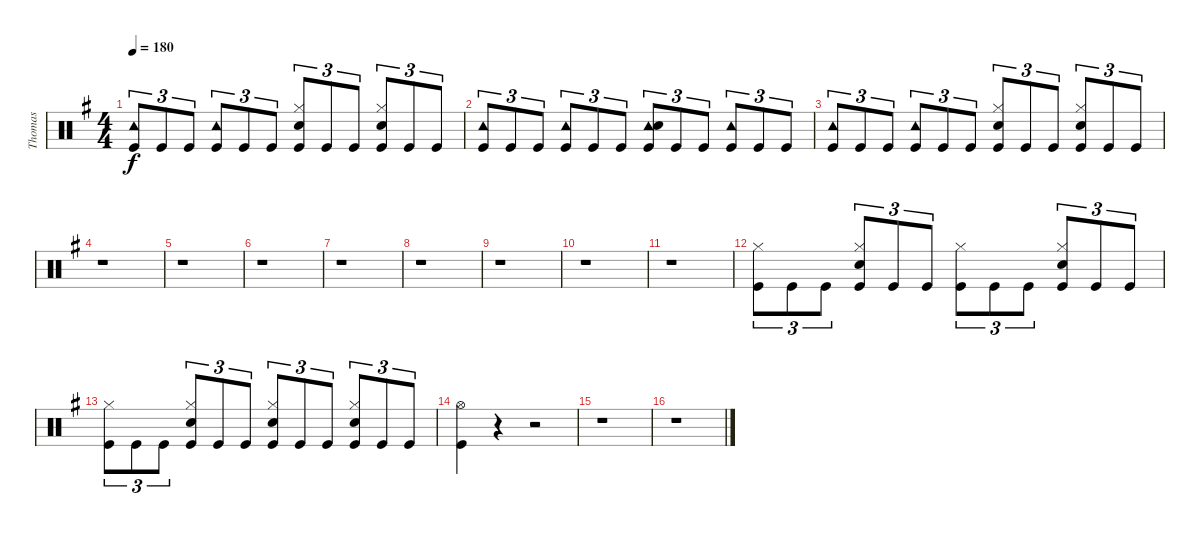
\track ("Thomas" "Thomas") {instrument percussion}
\staff {score}
\articulation defaults
\ts (4 4)
\tempo 180
\clef neutral
\ks g
("Tambourine (hit)" "Kick (hit)").8{tu (3 2) dy f} "Kick (hit)".8{tu (3 2)} "Kick (hit)".8{tu (3 2)} ("Tambourine (hit)" "Kick (hit)").8{tu (3 2)} "Kick (hit)".8{tu (3 2)} "Kick (hit)".8{tu (3 2)} ("Hi-Hat (closed)" "Snare (hit) 2" "Kick (hit)").8{tu (3 2)} "Kick (hit)".8{tu (3 2)} "Kick (hit)".8{tu (3 2)} ("Hi-Hat (closed)" "Snare (hit) 2" "Kick (hit)").8{tu (3 2)} "Kick (hit)".8{tu (3 2)} "Kick (hit)".8{tu (3 2)} |
("Tambourine (hit)" "Kick (hit)").8{tu (3 2)} "Kick (hit)".8{tu (3 2)} "Kick (hit)".8{tu (3 2)} ("Tambourine (hit)" "Kick (hit)").8{tu (3 2)} "Kick (hit)".8{tu (3 2)} "Kick (hit)".8{tu (3 2)} ("Tambourine (hit)" "Snare (hit) 2" "Kick (hit)").8{tu (3 2)} "Kick (hit)".8{tu (3 2)} "Kick (hit)".8{tu (3 2)} ("Tambourine (hit)" "Kick (hit)").8{tu (3 2)} "Kick (hit)".8{tu (3 2)} "Kick (hit)".8{tu (3 2)} |
("Tambourine (hit)" "Kick (hit)").8{tu (3 2)} "Kick (hit)".8{tu (3 2)} "Kick (hit)".8{tu (3 2)} ("Tambourine (hit)" "Kick (hit)").8{tu (3 2)} "Kick (hit)".8{tu (3 2)} "Kick (hit)".8{tu (3 2)} ("Hi-Hat (closed)" "Snare (hit) 2" "Kick (hit)").8{tu (3 2)} "Kick (hit)".8{tu (3 2)} "Kick (hit)".8{tu (3 2)} ("Hi-Hat (closed)" "Snare (hit) 2" "Kick (hit)").8{tu (3 2)} "Kick (hit)".8{tu (3 2)} "Kick (hit)".8{tu (3 2)} |
r.1 |
r.1 |
r.1 |
r.1 |
r.1 |
r.1 |
r.1 |
r.1 |
("Hi-Hat (closed)" "Kick (hit)").8{tu (3 2)} "Kick (hit)".8{tu (3 2)} "Kick (hit)".8{tu (3 2)} ("Hi-Hat (closed)" "Snare (hit) 2" "Kick (hit)").8{tu (3 2)} "Kick (hit)".8{tu (3 2)} "Kick (hit)".8{tu (3 2)} ("Hi-Hat (closed)" "Kick (hit)").8{tu (3 2)} "Kick (hit)".8{tu (3 2)} "Kick (hit)".8{tu (3 2)} ("Hi-Hat (closed)" "Snare (hit) 2" "Kick (hit)").8{tu (3 2)} "Kick (hit)".8{tu (3 2)} "Kick (hit)".8{tu (3 2)} |
("Hi-Hat (closed)" "Kick (hit)").8{tu (3 2)} "Kick (hit)".8{tu (3 2)} "Kick (hit)".8{tu (3 2)} ("Hi-Hat (closed)" "Snare (hit) 2" "Kick (hit)").8{tu (3 2)} "Kick (hit)".8{tu (3 2)} "Kick (hit)".8{tu (3 2)} ("Hi-Hat (closed)" "Snare (hit) 2" "Kick (hit)").8{tu (3 2)} "Kick (hit)".8{tu (3 2)} "Kick (hit)".8{tu (3 2)} ("Hi-Hat (closed)" "Snare (hit) 2" "Kick (hit)").8{tu (3 2)} "Kick (hit)".8{tu (3 2)} "Kick (hit)".8{tu (3 2)} |
("Hi-Hat (open)" "Kick (hit)").4 r.4 r.2 |
r.1 |
r.1
